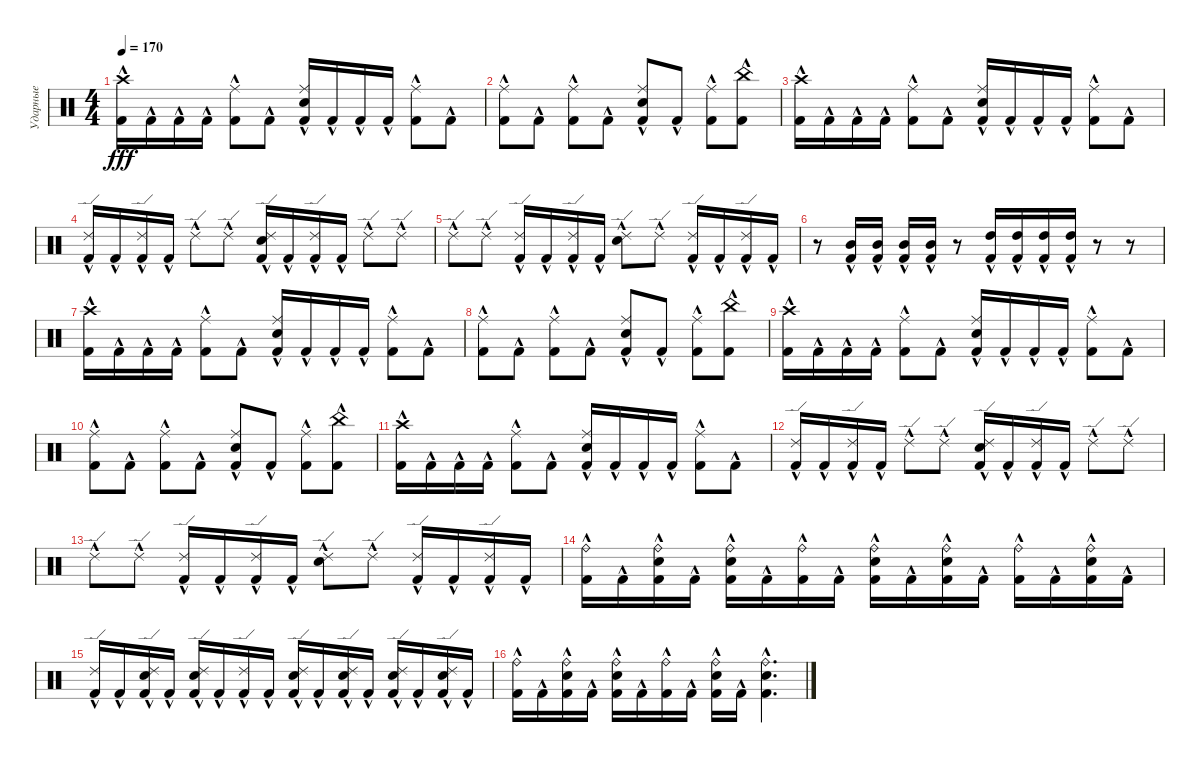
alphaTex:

\track ("Ударные" "Ударные") {instrument percussion}
\staff {score}
\articulation defaults
\ts (4 4)
\tempo 170
\clef neutral
\ks c
("Kick (hit) 2"{hac} "Crash high (hit)").16{dy fff} "Kick (hit) 2"{hac}.16 "Kick (hit) 2"{hac}.16 "Kick (hit) 2"{hac}.16 ("Ride (middle)"{hac} "Kick (hit) 2"{hac}).8 "Kick (hit) 2"{hac}.8 ("Kick (hit) 2"{hac} "Ride (middle)"{hac} "Snare (hit) 2").16 "Kick (hit) 2"{hac}.16 "Kick (hit) 2"{hac}.16 "Kick (hit) 2"{hac}.16 ("Kick (hit) 2"{hac} "Ride (middle)"{hac}).8 "Kick (hit) 2"{hac}.8 |
("Ride (middle)"{hac} "Kick (hit) 2"{hac}).8 "Kick (hit) 2"{hac}.8 ("Kick (hit) 2"{hac} "Ride (middle)"{hac}).8 "Kick (hit) 2"{hac}.8 ("Kick (hit) 2"{hac} "Ride (middle)"{hac} "Snare (hit) 2").8 "Kick (hit) 2"{hac}.8 ("Kick (hit) 2"{hac} "Ride (middle)"{hac}).8 ("China (hit)"{hac} "Kick (hit) 2"{hac}).8 |
("Kick (hit) 2"{hac} "Crash high (hit)").16 "Kick (hit) 2"{hac}.16 "Kick (hit) 2"{hac}.16 "Kick (hit) 2"{hac}.16 ("Ride (middle)"{hac} "Kick (hit) 2"{hac}).8 "Kick (hit) 2"{hac}.8 ("Kick (hit) 2"{hac} "Ride (middle)"{hac} "Snare (hit) 2").16 "Kick (hit) 2"{hac}.16 "Kick (hit) 2"{hac}.16 "Kick (hit) 2"{hac}.16 ("Kick (hit) 2"{hac} "Ride (middle)"{hac}).8 "Kick (hit) 2"{hac}.8 |
("Ride (edge) 2"{hac} "Kick (hit) 2"{hac}).16 "Kick (hit) 2"{hac}.16 ("Kick (hit) 2"{hac} "Ride (edge) 2"{hac}).16 "Kick (hit) 2"{hac}.16 "Ride (edge) 2"{hac}.8 "Ride (edge) 2"{hac}.8 ("Kick (hit) 2"{hac} "Snare (hit) 2" "Ride (edge) 2"{hac}).16 "Kick (hit) 2"{hac}.16 ("Kick (hit) 2"{hac} "Ride (edge) 2"{hac}).16 "Kick (hit) 2"{hac}.16 "Ride (edge) 2"{hac}.8 "Ride (edge) 2"{hac}.8 |
"Ride (edge) 2"{hac}.8 "Ride (edge) 2"{hac}.8 ("Kick (hit) 2"{hac} "Ride (edge) 2"{hac}).16 "Kick (hit) 2"{hac}.16 ("Kick (hit) 2"{hac} "Ride (edge) 2"{hac}).16 "Kick (hit) 2"{hac}.16 ("Snare (hit) 2" "Ride (edge) 2"{hac}).8 "Ride (edge) 2"{hac}.8 ("Kick (hit) 2"{hac} "Ride (edge) 2"{hac}).16 "Kick (hit) 2"{hac}.16 ("Kick (hit) 2"{hac} "Ride (edge) 2"{hac}).16 "Kick (hit) 2"{hac}.16 |
r.8 ("Mid Tom (hit)"{hac} "Kick (hit) 2"{hac}).16 ("Mid Tom (hit)"{hac} "Kick (hit) 2"{hac}).16 ("Mid Tom (hit)"{hac} "Kick (hit) 2"{hac}).16 ("Mid Tom (hit)"{hac} "Kick (hit) 2"{hac}).16 r.8 ("High Tom (hit)"{hac} "Kick (hit) 2"{hac}).16 ("High Tom (hit)"{hac} "Kick (hit) 2"{hac}).16 ("High Tom (hit)"{hac} "Kick (hit) 2"{hac}).16 ("High Tom (hit)"{hac} "Kick (hit) 2"{hac}).16 r.8 r.8 |
("Kick (hit) 2"{hac} "Crash high (hit)").16 "Kick (hit) 2"{hac}.16 "Kick (hit) 2"{hac}.16 "Kick (hit) 2"{hac}.16 ("Ride (middle)"{hac} "Kick (hit) 2"{hac}).8 "Kick (hit) 2"{hac}.8 ("Kick (hit) 2"{hac} "Ride (middle)"{hac} "Snare (hit) 2").16 "Kick (hit) 2"{hac}.16 "Kick (hit) 2"{hac}.16 "Kick (hit) 2"{hac}.16 ("Kick (hit) 2"{hac} "Ride (middle)"{hac}).8 "Kick (hit) 2"{hac}.8 |
("Ride (middle)"{hac} "Kick (hit) 2"{hac}).8 "Kick (hit) 2"{hac}.8 ("Kick (hit) 2"{hac} "Ride (middle)"{hac}).8 "Kick (hit) 2"{hac}.8 ("Kick (hit) 2"{hac} "Ride (middle)"{hac} "Snare (hit) 2").8 "Kick (hit) 2"{hac}.8 ("Kick (hit) 2"{hac} "Ride (middle)"{hac}).8 ("China (hit)"{hac} "Kick (hit) 2"{hac}).8 |
("Kick (hit) 2"{hac} "Crash high (hit)").16 "Kick (hit) 2"{hac}.16 "Kick (hit) 2"{hac}.16 "Kick (hit) 2"{hac}.16 ("Ride (middle)"{hac} "Kick (hit) 2"{hac}).8 "Kick (hit) 2"{hac}.8 ("Kick (hit) 2"{hac} "Ride (middle)"{hac} "Snare (hit) 2").16 "Kick (hit) 2"{hac}.16 "Kick (hit) 2"{hac}.16 "Kick (hit) 2"{hac}.16 ("Kick (hit) 2"{hac} "Ride (middle)"{hac}).8 "Kick (hit) 2"{hac}.8 |
("Ride (middle)"{hac} "Kick (hit) 2"{hac}).8 "Kick (hit) 2"{hac}.8 ("Kick (hit) 2"{hac} "Ride (middle)"{hac}).8 "Kick (hit) 2"{hac}.8 ("Kick (hit) 2"{hac} "Ride (middle)"{hac} "Snare (hit) 2").8 "Kick (hit) 2"{hac}.8 ("Kick (hit) 2"{hac} "Ride (middle)"{hac}).8 ("China (hit)"{hac} "Kick (hit) 2"{hac}).8 |
("Kick (hit) 2"{hac} "Crash high (hit)").16 "Kick (hit) 2"{hac}.16 "Kick (hit) 2"{hac}.16 "Kick (hit) 2"{hac}.16 ("Ride (middle)"{hac} "Kick (hit) 2"{hac}).8 "Kick (hit) 2"{hac}.8 ("Kick (hit) 2"{hac} "Ride (middle)"{hac} "Snare (hit) 2").16 "Kick (hit) 2"{hac}.16 "Kick (hit) 2"{hac}.16 "Kick (hit) 2"{hac}.16 ("Kick (hit) 2"{hac} "Ride (middle)"{hac}).8 "Kick (hit) 2"{hac}.8 |
("Ride (edge) 2"{hac} "Kick (hit) 2"{hac}).16 "Kick (hit) 2"{hac}.16 ("Kick (hit) 2"{hac} "Ride (edge) 2"{hac}).16 "Kick (hit) 2"{hac}.16 "Ride (edge) 2"{hac}.8 "Ride (edge) 2"{hac}.8 ("Kick (hit) 2"{hac} "Snare (hit) 2" "Ride (edge) 2"{hac}).16 "Kick (hit) 2"{hac}.16 ("Kick (hit) 2"{hac} "Ride (edge) 2"{hac}).16 "Kick (hit) 2"{hac}.16 "Ride (edge) 2"{hac}.8 "Ride (edge) 2"{hac}.8 |
"Ride (edge) 2"{hac}.8 "Ride (edge) 2"{hac}.8 ("Kick (hit) 2"{hac} "Ride (edge) 2"{hac}).16 "Kick (hit) 2"{hac}.16 ("Kick (hit) 2"{hac} "Ride (edge) 2"{hac}).16 "Kick (hit) 2"{hac}.16 ("Snare (hit) 2" "Ride (edge) 2"{hac}).8 "Ride (edge) 2"{hac}.8 ("Kick (hit) 2"{hac} "Ride (edge) 2"{hac}).16 "Kick (hit) 2"{hac}.16 ("Kick (hit) 2"{hac} "Ride (edge) 2"{hac}).16 "Kick (hit) 2"{hac}.16 |
("Ride (bell)" "Kick (hit) 2"{hac}).16 "Kick (hit) 2"{hac}.16 ("Kick (hit) 2"{hac} "Ride (bell)" "Snare (hit) 2").16 "Kick (hit) 2"{hac}.16 ("Kick (hit) 2"{hac} "Ride (bell)" "Snare (hit) 2").16 "Kick (hit) 2"{hac}.16 ("Kick (hit) 2"{hac} "Ride (bell)").16 "Kick (hit) 2"{hac}.16 ("Kick (hit) 2"{hac} "Snare (hit) 2" "Ride (bell)").16 "Kick (hit) 2"{hac}.16 ("Kick (hit) 2"{hac} "Ride (bell)" "Snare (hit) 2").16 "Kick (hit) 2"{hac}.16 ("Kick (hit) 2"{hac} "Ride (bell)").16 "Kick (hit) 2"{hac}.16 ("Ride (bell)" "Kick (hit) 2"{hac} "Snare (hit) 2").16 "Kick (hit) 2"{hac}.16 |
("Ride (edge) 2"{hac} "Kick (hit) 2"{hac}).16 "Kick (hit) 2"{hac}.16 ("Kick (hit) 2"{hac} "Ride (edge) 2"{hac} "Snare (hit) 2").16 "Kick (hit) 2"{hac}.16 ("Kick (hit) 2"{hac} "Ride (edge) 2"{hac} "Snare (hit) 2").16 "Kick (hit) 2"{hac}.16 ("Kick (hit) 2"{hac} "Ride (edge) 2"{hac}).16 "Kick (hit) 2"{hac}.16 ("Kick (hit) 2"{hac} "Snare (hit) 2" "Ride (edge) 2"{hac}).16 "Kick (hit) 2"{hac}.16 ("Kick (hit) 2"{hac} "Ride (edge) 2"{hac} "Snare (hit) 2").16 "Kick (hit) 2"{hac}.16 ("Kick (hit) 2"{hac} "Ride (edge) 2"{hac} "Snare (hit) 2").16 "Kick (hit) 2"{hac}.16 ("Ride (edge) 2"{hac} "Kick (hit) 2"{hac} "Snare (hit) 2").16 "Kick (hit) 2"{hac}.16 |
("Ride (bell)" "Kick (hit) 2"{hac}).16 "Kick (hit) 2"{hac}.16 ("Kick (hit) 2"{hac} "Ride (bell)" "Snare (hit) 2").16 "Kick (hit) 2"{hac}.16 ("Kick (hit) 2"{hac} "Ride (bell)" "Snare (hit) 2").16 "Kick (hit) 2"{hac}.16 ("Kick (hit) 2"{hac} "Ride (bell)").16 "Kick (hit) 2"{hac}.16 ("Kick (hit) 2"{hac} "Snare (hit) 2" "Ride (bell)").16 "Kick (hit) 2"{hac}.16 ("Kick (hit) 2"{hac} "Ride (bell)" "Snare (hit) 2").4{d}
